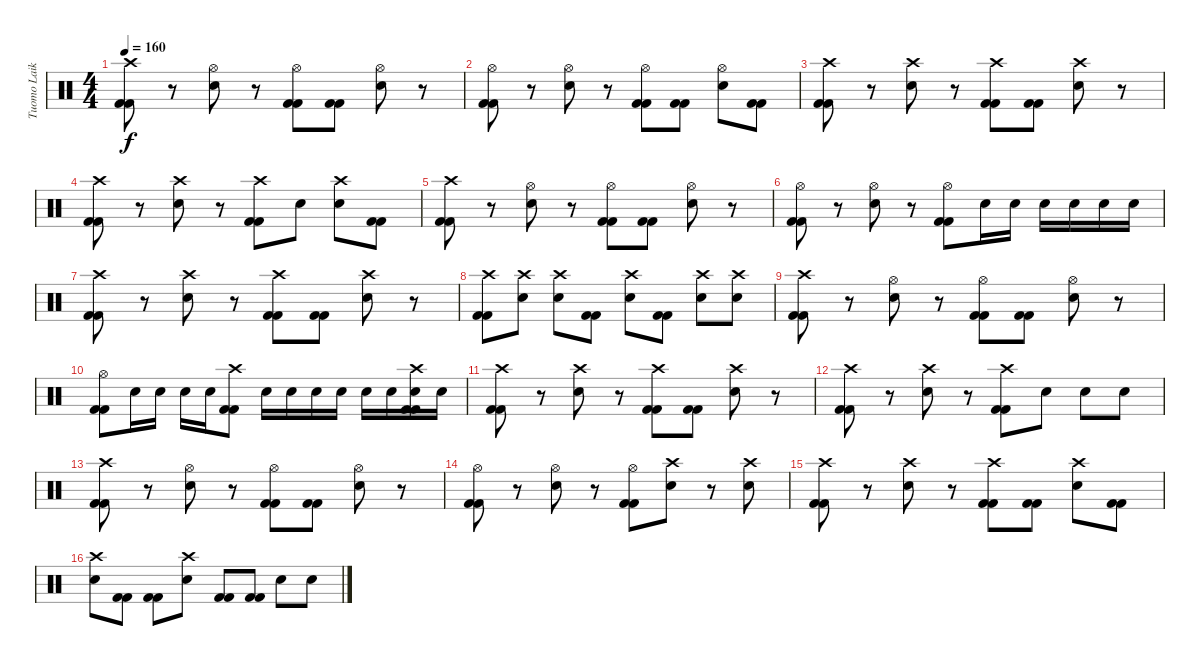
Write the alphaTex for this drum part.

\track ("Tuomo Laikari" "Tuomo Laik") {instrument percussion}
\staff {score}
\articulation defaults
\ts (4 4)
\tempo 160
\clef neutral
\ks c
("Crash high (hit)" "Kick (hit) 2" "Kick (hit) 2").8{dy f} r.8 ("Hi-Hat (open)" "Electric Snare (hit)").8 r.8 ("Hi-Hat (open)" "Kick (hit) 2" "Kick (hit) 2").8 ("Kick (hit) 2" "Kick (hit) 2").8 ("Hi-Hat (open)" "Electric Snare (hit)").8 r.8 |
("Hi-Hat (open)" "Kick (hit) 2" "Kick (hit) 2").8 r.8 ("Hi-Hat (open)" "Electric Snare (hit)").8 r.8 ("Hi-Hat (open)" "Kick (hit) 2" "Kick (hit) 2").8 ("Kick (hit) 2" "Kick (hit) 2").8 ("Hi-Hat (open)" "Electric Snare (hit)").8 ("Kick (hit) 2" "Kick (hit) 2").8 |
("Crash high (hit)" "Kick (hit) 2" "Kick (hit) 2").8 r.8 ("Crash high (hit)" "Electric Snare (hit)").8 r.8 ("Crash high (hit)" "Kick (hit) 2" "Kick (hit) 2").8 ("Kick (hit) 2" "Kick (hit) 2").8 ("Crash high (hit)" "Electric Snare (hit)").8 r.8 |
("Crash high (hit)" "Kick (hit) 2" "Kick (hit) 2").8 r.8 ("Crash high (hit)" "Electric Snare (hit)").8 r.8 ("Crash high (hit)" "Kick (hit) 2" "Kick (hit) 2").8 "Electric Snare (hit)".8 ("Crash high (hit)" "Electric Snare (hit)").8 ("Kick (hit) 2" "Kick (hit) 2").8 |
("Crash high (hit)" "Kick (hit) 2" "Kick (hit) 2").8 r.8 ("Hi-Hat (open)" "Electric Snare (hit)").8 r.8 ("Hi-Hat (open)" "Kick (hit) 2" "Kick (hit) 2").8 ("Kick (hit) 2" "Kick (hit) 2").8 ("Hi-Hat (open)" "Electric Snare (hit)").8 r.8 |
("Hi-Hat (open)" "Kick (hit) 2" "Kick (hit) 2").8 r.8 ("Hi-Hat (open)" "Electric Snare (hit)").8 r.8 ("Hi-Hat (open)" "Kick (hit) 2" "Kick (hit) 2").8 "Electric Snare (hit)".16 "Electric Snare (hit)".16 "Electric Snare (hit)".16 "Electric Snare (hit)".16 "Electric Snare (hit)".16 "Electric Snare (hit)".16 |
("Crash high (hit)" "Kick (hit) 2" "Kick (hit) 2").8 r.8 ("Crash high (hit)" "Electric Snare (hit)").8 r.8 ("Crash high (hit)" "Kick (hit) 2" "Kick (hit) 2").8 ("Kick (hit) 2" "Kick (hit) 2").8 ("Crash high (hit)" "Electric Snare (hit)").8 r.8 |
("Crash high (hit)" "Kick (hit) 2" "Kick (hit) 2").8 ("Crash high (hit)" "Electric Snare (hit)").8 ("Crash high (hit)" "Electric Snare (hit)").8 ("Kick (hit) 2" "Kick (hit) 2").8 ("Crash high (hit)" "Electric Snare (hit)").8 ("Kick (hit) 2" "Kick (hit) 2").8 ("Crash high (hit)" "Electric Snare (hit)").8 ("Crash high (hit)" "Electric Snare (hit)").8 |
("Crash high (hit)" "Kick (hit) 2" "Kick (hit) 2").8 r.8 ("Hi-Hat (open)" "Electric Snare (hit)").8 r.8 ("Hi-Hat (open)" "Kick (hit) 2" "Kick (hit) 2").8 ("Kick (hit) 2" "Kick (hit) 2").8 ("Hi-Hat (open)" "Electric Snare (hit)").8 r.8 |
("Hi-Hat (open)" "Kick (hit) 2" "Kick (hit) 2").8 "Electric Snare (hit)".16 "Electric Snare (hit)".16 "Electric Snare (hit)".16 "Electric Snare (hit)".16 ("Crash high (hit)" "Kick (hit) 2" "Kick (hit) 2").8 "Electric Snare (hit)".16 "Electric Snare (hit)".16 "Electric Snare (hit)".16 "Electric Snare (hit)".16 "Electric Snare (hit)".16 "Electric Snare (hit)".16 ("Crash high (hit)" "Electric Snare (hit)" "Kick (hit) 2" "Kick (hit) 2").16 "Electric Snare (hit)".16 |
("Crash high (hit)" "Kick (hit) 2" "Kick (hit) 2").8 r.8 ("Crash high (hit)" "Electric Snare (hit)").8 r.8 ("Crash high (hit)" "Kick (hit) 2" "Kick (hit) 2").8 ("Kick (hit) 2" "Kick (hit) 2").8 ("Crash high (hit)" "Electric Snare (hit)").8 r.8 |
("Crash high (hit)" "Kick (hit) 2" "Kick (hit) 2").8 r.8 ("Crash high (hit)" "Electric Snare (hit)").8 r.8 ("Crash high (hit)" "Kick (hit) 2" "Kick (hit) 2").8 "Electric Snare (hit)".8 "Electric Snare (hit)".8 "Electric Snare (hit)".8 |
("Crash high (hit)" "Kick (hit) 2" "Kick (hit) 2").8 r.8 ("Hi-Hat (open)" "Electric Snare (hit)").8 r.8 ("Hi-Hat (open)" "Kick (hit) 2" "Kick (hit) 2").8 ("Kick (hit) 2" "Kick (hit) 2").8 ("Hi-Hat (open)" "Electric Snare (hit)").8 r.8 |
("Hi-Hat (open)" "Kick (hit) 2" "Kick (hit) 2").8 r.8 ("Hi-Hat (open)" "Electric Snare (hit)").8 r.8 ("Hi-Hat (open)" "Kick (hit) 2" "Kick (hit) 2").8 ("Crash high (hit)" "Electric Snare (hit)").8 r.8 ("Crash high (hit)" "Electric Snare (hit)").8 |
("Crash high (hit)" "Kick (hit) 2" "Kick (hit) 2").8 r.8 ("Crash high (hit)" "Electric Snare (hit)").8 r.8 ("Crash high (hit)" "Kick (hit) 2" "Kick (hit) 2").8 ("Kick (hit) 2" "Kick (hit) 2").8 ("Crash high (hit)" "Electric Snare (hit)").8 ("Kick (hit) 2" "Kick (hit) 2").8 |
("Crash high (hit)" "Electric Snare (hit)").8 ("Kick (hit) 2" "Kick (hit) 2").8 ("Kick (hit) 2" "Kick (hit) 2").8 ("Crash high (hit)" "Electric Snare (hit)").8 ("Kick (hit) 2" "Kick (hit) 2").8 ("Kick (hit) 2" "Kick (hit) 2").8 "Electric Snare (hit)".8 "Electric Snare (hit)".8
